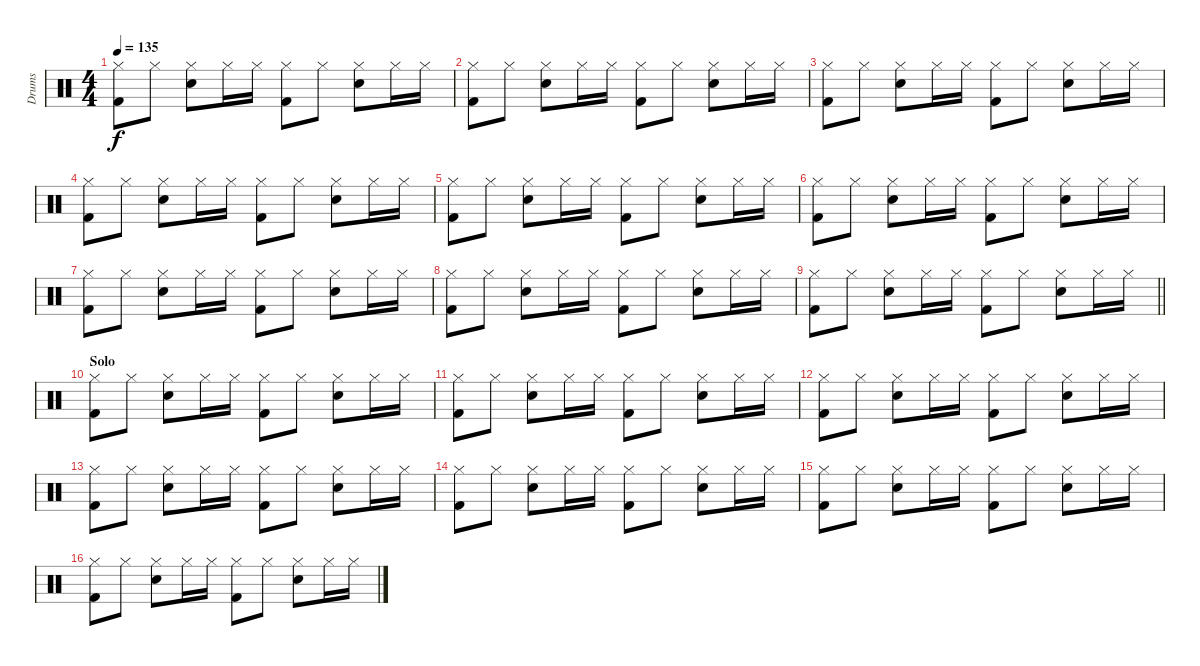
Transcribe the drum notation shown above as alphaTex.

\track ("Drums" "Drums") {instrument percussion}
\staff {score}
\articulation defaults
\ts (4 4)
\tempo 135
\clef neutral
\ks c
("Hi-Hat (closed)" "Kick (hit) 2").8{dy f} "Hi-Hat (closed)".8 ("Hi-Hat (closed)" "Snare (hit) 2").8 "Hi-Hat (closed)".16 "Hi-Hat (closed)".16 ("Hi-Hat (closed)" "Kick (hit) 2").8 "Hi-Hat (closed)".8 ("Hi-Hat (closed)" "Snare (hit) 2").8 "Hi-Hat (closed)".16 "Hi-Hat (closed)".16 |
("Hi-Hat (closed)" "Kick (hit) 2").8 "Hi-Hat (closed)".8 ("Hi-Hat (closed)" "Snare (hit) 2").8 "Hi-Hat (closed)".16 "Hi-Hat (closed)".16 ("Hi-Hat (closed)" "Kick (hit) 2").8 "Hi-Hat (closed)".8 ("Hi-Hat (closed)" "Snare (hit) 2").8 "Hi-Hat (closed)".16 "Hi-Hat (closed)".16 |
("Hi-Hat (closed)" "Kick (hit) 2").8 "Hi-Hat (closed)".8 ("Hi-Hat (closed)" "Snare (hit) 2").8 "Hi-Hat (closed)".16 "Hi-Hat (closed)".16 ("Hi-Hat (closed)" "Kick (hit) 2").8 "Hi-Hat (closed)".8 ("Hi-Hat (closed)" "Snare (hit) 2").8 "Hi-Hat (closed)".16 "Hi-Hat (closed)".16 |
("Hi-Hat (closed)" "Kick (hit) 2").8 "Hi-Hat (closed)".8 ("Hi-Hat (closed)" "Snare (hit) 2").8 "Hi-Hat (closed)".16 "Hi-Hat (closed)".16 ("Hi-Hat (closed)" "Kick (hit) 2").8 "Hi-Hat (closed)".8 ("Hi-Hat (closed)" "Snare (hit) 2").8 "Hi-Hat (closed)".16 "Hi-Hat (closed)".16 |
("Hi-Hat (closed)" "Kick (hit) 2").8 "Hi-Hat (closed)".8 ("Hi-Hat (closed)" "Snare (hit) 2").8 "Hi-Hat (closed)".16 "Hi-Hat (closed)".16 ("Hi-Hat (closed)" "Kick (hit) 2").8 "Hi-Hat (closed)".8 ("Hi-Hat (closed)" "Snare (hit) 2").8 "Hi-Hat (closed)".16 "Hi-Hat (closed)".16 |
("Hi-Hat (closed)" "Kick (hit) 2").8 "Hi-Hat (closed)".8 ("Hi-Hat (closed)" "Snare (hit) 2").8 "Hi-Hat (closed)".16 "Hi-Hat (closed)".16 ("Hi-Hat (closed)" "Kick (hit) 2").8 "Hi-Hat (closed)".8 ("Hi-Hat (closed)" "Snare (hit) 2").8 "Hi-Hat (closed)".16 "Hi-Hat (closed)".16 |
("Hi-Hat (closed)" "Kick (hit) 2").8 "Hi-Hat (closed)".8 ("Hi-Hat (closed)" "Snare (hit) 2").8 "Hi-Hat (closed)".16 "Hi-Hat (closed)".16 ("Hi-Hat (closed)" "Kick (hit) 2").8 "Hi-Hat (closed)".8 ("Hi-Hat (closed)" "Snare (hit) 2").8 "Hi-Hat (closed)".16 "Hi-Hat (closed)".16 |
("Hi-Hat (closed)" "Kick (hit) 2").8 "Hi-Hat (closed)".8 ("Hi-Hat (closed)" "Snare (hit) 2").8 "Hi-Hat (closed)".16 "Hi-Hat (closed)".16 ("Hi-Hat (closed)" "Kick (hit) 2").8 "Hi-Hat (closed)".8 ("Hi-Hat (closed)" "Snare (hit) 2").8 "Hi-Hat (closed)".16 "Hi-Hat (closed)".16 |
\barLineRight lightlight
("Hi-Hat (closed)" "Kick (hit) 2").8 "Hi-Hat (closed)".8 ("Hi-Hat (closed)" "Snare (hit) 2").8 "Hi-Hat (closed)".16 "Hi-Hat (closed)".16 ("Hi-Hat (closed)" "Kick (hit) 2").8 "Hi-Hat (closed)".8 ("Hi-Hat (closed)" "Snare (hit) 2").8 "Hi-Hat (closed)".16 "Hi-Hat (closed)".16 |
\section ("" "Solo")
("Hi-Hat (closed)" "Kick (hit) 2").8 "Hi-Hat (closed)".8 ("Hi-Hat (closed)" "Snare (hit) 2").8 "Hi-Hat (closed)".16 "Hi-Hat (closed)".16 ("Hi-Hat (closed)" "Kick (hit) 2").8 "Hi-Hat (closed)".8 ("Hi-Hat (closed)" "Snare (hit) 2").8 "Hi-Hat (closed)".16 "Hi-Hat (closed)".16 |
("Hi-Hat (closed)" "Kick (hit) 2").8 "Hi-Hat (closed)".8 ("Hi-Hat (closed)" "Snare (hit) 2").8 "Hi-Hat (closed)".16 "Hi-Hat (closed)".16 ("Hi-Hat (closed)" "Kick (hit) 2").8 "Hi-Hat (closed)".8 ("Hi-Hat (closed)" "Snare (hit) 2").8 "Hi-Hat (closed)".16 "Hi-Hat (closed)".16 |
("Hi-Hat (closed)" "Kick (hit) 2").8 "Hi-Hat (closed)".8 ("Hi-Hat (closed)" "Snare (hit) 2").8 "Hi-Hat (closed)".16 "Hi-Hat (closed)".16 ("Hi-Hat (closed)" "Kick (hit) 2").8 "Hi-Hat (closed)".8 ("Hi-Hat (closed)" "Snare (hit) 2").8 "Hi-Hat (closed)".16 "Hi-Hat (closed)".16 |
("Hi-Hat (closed)" "Kick (hit) 2").8 "Hi-Hat (closed)".8 ("Hi-Hat (closed)" "Snare (hit) 2").8 "Hi-Hat (closed)".16 "Hi-Hat (closed)".16 ("Hi-Hat (closed)" "Kick (hit) 2").8 "Hi-Hat (closed)".8 ("Hi-Hat (closed)" "Snare (hit) 2").8 "Hi-Hat (closed)".16 "Hi-Hat (closed)".16 |
("Hi-Hat (closed)" "Kick (hit) 2").8 "Hi-Hat (closed)".8 ("Hi-Hat (closed)" "Snare (hit) 2").8 "Hi-Hat (closed)".16 "Hi-Hat (closed)".16 ("Hi-Hat (closed)" "Kick (hit) 2").8 "Hi-Hat (closed)".8 ("Hi-Hat (closed)" "Snare (hit) 2").8 "Hi-Hat (closed)".16 "Hi-Hat (closed)".16 |
("Hi-Hat (closed)" "Kick (hit) 2").8 "Hi-Hat (closed)".8 ("Hi-Hat (closed)" "Snare (hit) 2").8 "Hi-Hat (closed)".16 "Hi-Hat (closed)".16 ("Hi-Hat (closed)" "Kick (hit) 2").8 "Hi-Hat (closed)".8 ("Hi-Hat (closed)" "Snare (hit) 2").8 "Hi-Hat (closed)".16 "Hi-Hat (closed)".16 |
("Hi-Hat (closed)" "Kick (hit) 2").8 "Hi-Hat (closed)".8 ("Hi-Hat (closed)" "Snare (hit) 2").8 "Hi-Hat (closed)".16 "Hi-Hat (closed)".16 ("Hi-Hat (closed)" "Kick (hit) 2").8 "Hi-Hat (closed)".8 ("Hi-Hat (closed)" "Snare (hit) 2").8 "Hi-Hat (closed)".16 "Hi-Hat (closed)".16
